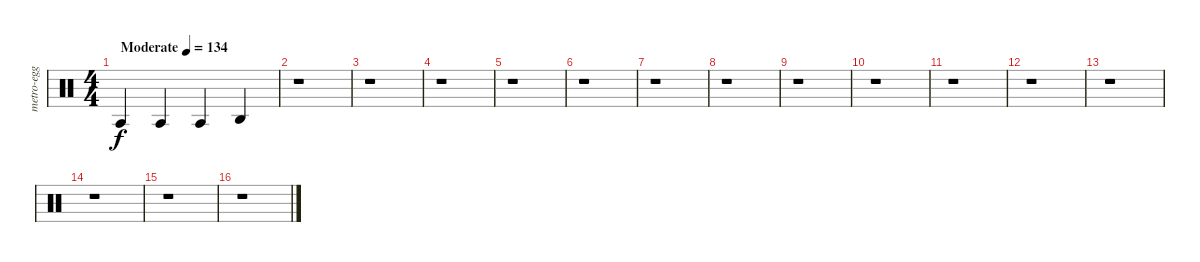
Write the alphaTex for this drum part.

\track ("metro-egg" "metro-egg") {instrument percussion}
\staff {score}
\articulation defaults
\ts (4 4)
\tempo (134 "Moderate")
\clef neutral
\ks c "Agogo tow (hit)".4{dy f} "Agogo tow (hit)".4 "Agogo tow (hit)".4 "Agogo high (hit)".4
|
r.1 |
r.1 |
r.1 |
r.1 |
r.1 |
r.1 |
r.1 |
r.1 |
r.1 |
r.1 |
r.1 |
r.1 |
r.1 |
r.1 |
r.1
